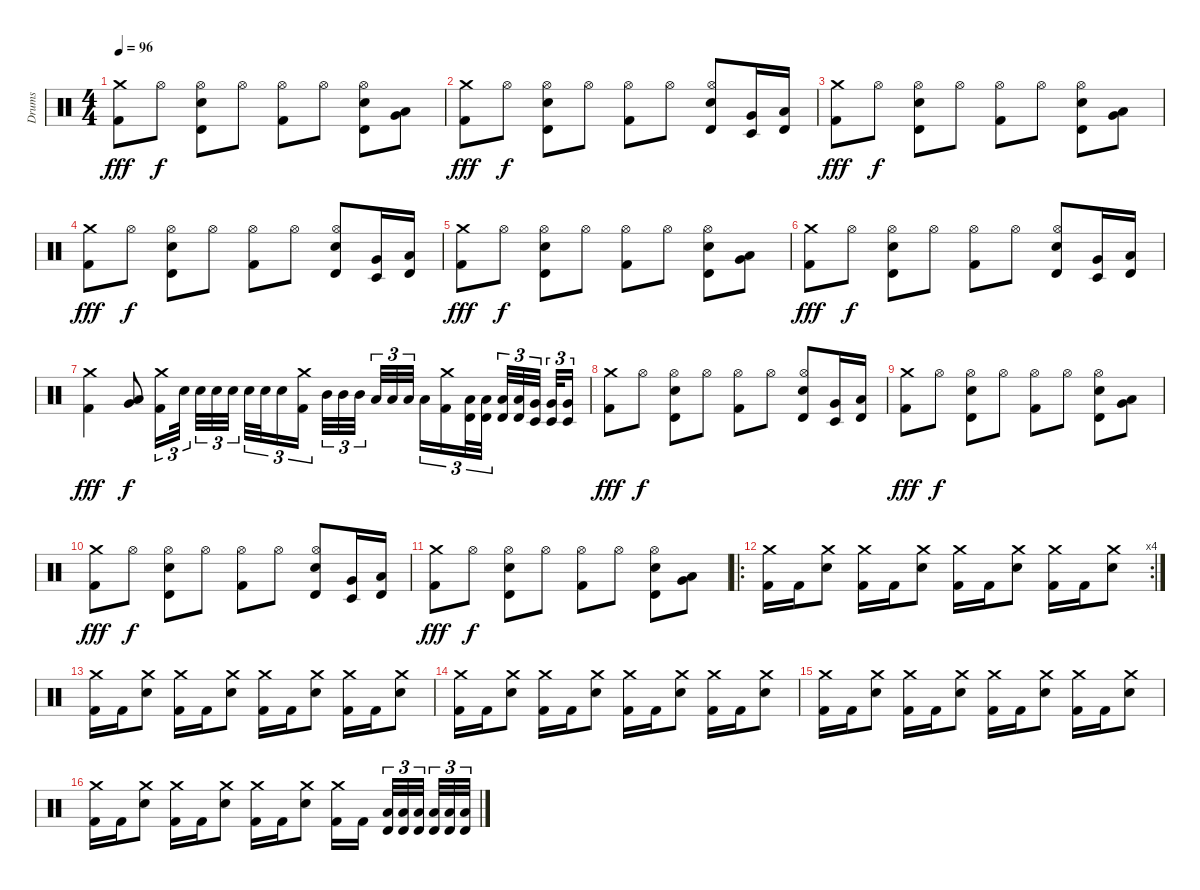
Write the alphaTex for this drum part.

\track ("Drums" "Drums") {instrument percussion}
\staff {score}
\articulation defaults
\ts (4 4)
\tempo 96
\clef neutral
\ks c
("Crash medium (hit)" "Kick (hit) 2").8{dy fff} "Hi-Hat (open)".8{dy f} ("Timbale high (hit)" "Electric Snare (hit)" "Hi-Hat (open)").8 "Hi-Hat (open)".8 ("Kick (hit) 2" "Hi-Hat (open)").8 "Hi-Hat (open)".8 ("Timbale high (hit)" "Electric Snare (hit)" "Hi-Hat (open)").8 ("Low Floor Tom (hit)" "Very Low Tom (hit)").8 |
("Crash medium (hit)" "Kick (hit) 2").8{dy fff} "Hi-Hat (open)".8{dy f} ("Timbale high (hit)" "Electric Snare (hit)" "Hi-Hat (open)").8 "Hi-Hat (open)".8 ("Kick (hit) 2" "Hi-Hat (open)").8 "Hi-Hat (open)".8 ("Timbale high (hit)" "Electric Snare (hit)" "Hi-Hat (open)").8 ("Timbale low (hit)" "Very Low Tom (hit)").16 ("Timbale high (hit)" "Low Tom (hit)").16 |
("Crash medium (hit)" "Kick (hit) 2").8{dy fff} "Hi-Hat (open)".8{dy f} ("Timbale high (hit)" "Electric Snare (hit)" "Hi-Hat (open)").8 "Hi-Hat (open)".8 ("Kick (hit) 2" "Hi-Hat (open)").8 "Hi-Hat (open)".8 ("Timbale high (hit)" "Electric Snare (hit)" "Hi-Hat (open)").8 ("Low Floor Tom (hit)" "Very Low Tom (hit)").8 |
("Crash medium (hit)" "Kick (hit) 2").8{dy fff} "Hi-Hat (open)".8{dy f} ("Timbale high (hit)" "Electric Snare (hit)" "Hi-Hat (open)").8 "Hi-Hat (open)".8 ("Kick (hit) 2" "Hi-Hat (open)").8 "Hi-Hat (open)".8 ("Timbale high (hit)" "Electric Snare (hit)" "Hi-Hat (open)").8 ("Timbale low (hit)" "Very Low Tom (hit)").16 ("Timbale high (hit)" "Low Tom (hit)").16 |
("Crash medium (hit)" "Kick (hit) 2").8{dy fff} "Hi-Hat (open)".8{dy f} ("Timbale high (hit)" "Electric Snare (hit)" "Hi-Hat (open)").8 "Hi-Hat (open)".8 ("Kick (hit) 2" "Hi-Hat (open)").8 "Hi-Hat (open)".8 ("Timbale high (hit)" "Electric Snare (hit)" "Hi-Hat (open)").8 ("Low Floor Tom (hit)" "Very Low Tom (hit)").8 |
("Crash medium (hit)" "Kick (hit) 2").8{dy fff} "Hi-Hat (open)".8{dy f} ("Timbale high (hit)" "Electric Snare (hit)" "Hi-Hat (open)").8 "Hi-Hat (open)".8 ("Kick (hit) 2" "Hi-Hat (open)").8 "Hi-Hat (open)".8 ("Timbale high (hit)" "Electric Snare (hit)" "Hi-Hat (open)").8 ("Timbale low (hit)" "Very Low Tom (hit)").16 ("Timbale high (hit)" "Low Tom (hit)").16 |
("Crash medium (hit)" "Kick (hit) 2").4{dy fff} ("Very Low Tom (hit)" "Low Floor Tom (hit)").8{dy f} ("Kick (hit) 2" "Crash medium (hit)").16{tu (3 2)} "Electric Snare (hit)".32{tu (3 2)} "Electric Snare (hit)".32{tu (3 2)} "Electric Snare (hit)".32{tu (3 2)} "Electric Snare (hit)".32{tu (3 2)} "Electric Snare (hit)".32{tu (3 2)} "Electric Snare (hit)".32{tu (3 2)} "Electric Snare (hit)".16{tu (3 2)} ("Crash medium (hit)" "Kick (hit) 2").16{tu (3 2)} "Mid Tom (hit)".32{tu (3 2)} "Mid Tom (hit)".32{tu (3 2)} "Mid Tom (hit)".32{tu (3 2)} "Low Tom (hit)".32{tu (3 2)} "Low Tom (hit)".32{tu (3 2)} "Low Tom (hit)".32{tu (3 2)} "Low Tom (hit)".16{tu (3 2)} ("Crash medium (hit)" "Kick (hit) 2").16{tu (3 2)} ("Low Tom (hit)" "Timbale high (hit)").32{tu (3 2)} ("Low Tom (hit)" "Timbale high (hit)").32{tu (3 2)} ("Low Tom (hit)" "Timbale high (hit)").32{tu (3 2)} ("Low Tom (hit)" "Timbale high (hit)").32{tu (3 2)} ("Very Low Tom (hit)" "Timbale low (hit)").32{tu (3 2)} ("Very Low Tom (hit)" "Timbale low (hit)").32{tu (3 2)} ("Very Low Tom (hit)" "Timbale low (hit)").16{tu (3 2)} |
("Crash medium (hit)" "Kick (hit) 2").8{dy fff} "Hi-Hat (open)".8{dy f} ("Timbale high (hit)" "Electric Snare (hit)" "Hi-Hat (open)").8 "Hi-Hat (open)".8 ("Kick (hit) 2" "Hi-Hat (open)").8 "Hi-Hat (open)".8 ("Timbale high (hit)" "Electric Snare (hit)" "Hi-Hat (open)").8 ("Timbale low (hit)" "Very Low Tom (hit)").16 ("Timbale high (hit)" "Low Tom (hit)").16 |
("Crash medium (hit)" "Kick (hit) 2").8{dy fff} "Hi-Hat (open)".8{dy f} ("Timbale high (hit)" "Electric Snare (hit)" "Hi-Hat (open)").8 "Hi-Hat (open)".8 ("Kick (hit) 2" "Hi-Hat (open)").8 "Hi-Hat (open)".8 ("Timbale high (hit)" "Electric Snare (hit)" "Hi-Hat (open)").8 ("Low Floor Tom (hit)" "Very Low Tom (hit)").8 |
("Crash medium (hit)" "Kick (hit) 2").8{dy fff} "Hi-Hat (open)".8{dy f} ("Timbale high (hit)" "Electric Snare (hit)" "Hi-Hat (open)").8 "Hi-Hat (open)".8 ("Kick (hit) 2" "Hi-Hat (open)").8 "Hi-Hat (open)".8 ("Timbale high (hit)" "Electric Snare (hit)" "Hi-Hat (open)").8 ("Timbale low (hit)" "Very Low Tom (hit)").16 ("Timbale high (hit)" "Low Tom (hit)").16 |
("Crash medium (hit)" "Kick (hit) 2").8{dy fff} "Hi-Hat (open)".8{dy f} ("Timbale high (hit)" "Electric Snare (hit)" "Hi-Hat (open)").8 "Hi-Hat (open)".8 ("Kick (hit) 2" "Hi-Hat (open)").8 "Hi-Hat (open)".8 ("Timbale high (hit)" "Electric Snare (hit)" "Hi-Hat (open)").8 ("Low Floor Tom (hit)" "Very Low Tom (hit)").8 |
\ro
\rc 4
("Crash medium (hit)" "Kick (hit) 2").16 "Kick (hit) 2".16 ("Crash medium (hit)" "Electric Snare (hit)").8 ("Crash medium (hit)" "Kick (hit) 2").16 "Kick (hit) 2".16 ("Crash medium (hit)" "Electric Snare (hit)").8 ("Crash medium (hit)" "Kick (hit) 2").16 "Kick (hit) 2".16 ("Crash medium (hit)" "Electric Snare (hit)").8 ("Crash medium (hit)" "Kick (hit) 2").16 "Kick (hit) 2".16 ("Crash medium (hit)" "Electric Snare (hit)").8 |
("Crash medium (hit)" "Kick (hit) 2").16 "Kick (hit) 2".16 ("Crash medium (hit)" "Electric Snare (hit)").8 ("Crash medium (hit)" "Kick (hit) 2").16 "Kick (hit) 2".16 ("Crash medium (hit)" "Electric Snare (hit)").8 ("Crash medium (hit)" "Kick (hit) 2").16 "Kick (hit) 2".16 ("Crash medium (hit)" "Electric Snare (hit)").8 ("Crash medium (hit)" "Kick (hit) 2").16 "Kick (hit) 2".16 ("Crash medium (hit)" "Electric Snare (hit)").8 |
("Crash medium (hit)" "Kick (hit) 2").16 "Kick (hit) 2".16 ("Crash medium (hit)" "Electric Snare (hit)").8 ("Crash medium (hit)" "Kick (hit) 2").16 "Kick (hit) 2".16 ("Crash medium (hit)" "Electric Snare (hit)").8 ("Crash medium (hit)" "Kick (hit) 2").16 "Kick (hit) 2".16 ("Crash medium (hit)" "Electric Snare (hit)").8 ("Crash medium (hit)" "Kick (hit) 2").16 "Kick (hit) 2".16 ("Crash medium (hit)" "Electric Snare (hit)").8 |
("Crash medium (hit)" "Kick (hit) 2").16 "Kick (hit) 2".16 ("Crash medium (hit)" "Electric Snare (hit)").8 ("Crash medium (hit)" "Kick (hit) 2").16 "Kick (hit) 2".16 ("Crash medium (hit)" "Electric Snare (hit)").8 ("Crash medium (hit)" "Kick (hit) 2").16 "Kick (hit) 2".16 ("Crash medium (hit)" "Electric Snare (hit)").8 ("Crash medium (hit)" "Kick (hit) 2").16 "Kick (hit) 2".16 ("Crash medium (hit)" "Electric Snare (hit)").8 |
("Crash medium (hit)" "Kick (hit) 2").16 "Kick (hit) 2".16 ("Crash medium (hit)" "Electric Snare (hit)").8 ("Crash medium (hit)" "Kick (hit) 2").16 "Kick (hit) 2".16 ("Crash medium (hit)" "Electric Snare (hit)").8 ("Crash medium (hit)" "Kick (hit) 2").16 "Kick (hit) 2".16 ("Crash medium (hit)" "Electric Snare (hit)").8 ("Crash medium (hit)" "Kick (hit) 2").16 "Kick (hit) 2".16 ("Timbale high (hit)" "Low Tom (hit)").32{tu (3 2)} ("Timbale high (hit)" "Low Tom (hit)").32{tu (3 2)} ("Timbale high (hit)" "Low Tom (hit)").32{tu (3 2)} ("Timbale high (hit)" "Low Tom (hit)").32{tu (3 2)} ("Timbale high (hit)" "Low Tom (hit)").32{tu (3 2)} ("Timbale high (hit)" "Low Tom (hit)").32{tu (3 2)}
